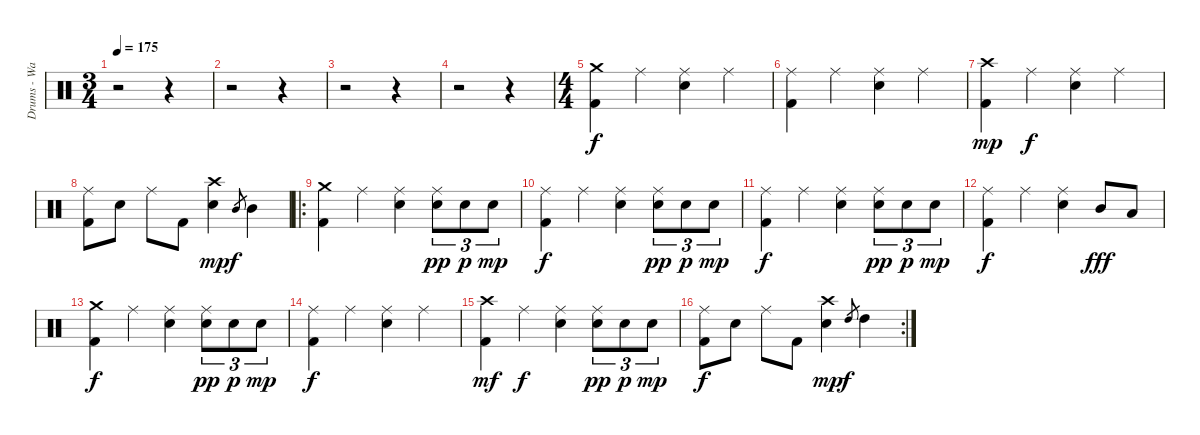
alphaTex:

\track ("Drums - Ward" "Drums - Wa") {instrument percussion}
\staff {score}
\articulation defaults
\ts (3 4)
\tempo 175
\clef neutral
\ks c
r.2{dy f} r.4 |
r.2 r.4 |
r.2 r.4 |
r.2 r.4 |
\ts (4 4)
("Crash medium (hit)" "Kick (hit) 2").4 "Ride (middle)".4 ("Ride (middle)" "Electric Snare (hit)").4 "Ride (middle)".4 |
("Ride (middle)" "Kick (hit) 2").4 "Ride (middle)".4 ("Ride (middle)" "Electric Snare (hit)").4 "Ride (middle)".4 |
("Crash high (hit)" "Kick (hit) 2").4{dy mp} "Ride (middle)".4{dy f} ("Ride (middle)" "Electric Snare (hit)").4 "Ride (middle)".4 |
("Ride (middle)" "Kick (hit) 2").8 "Electric Snare (hit)".8 "Ride (middle)".8 "Kick (hit) 2".8 ("Crash high (hit)" "Electric Snare (hit)").4{dy mp} "Mid Tom (hit)".8{gr dy f} "Mid Tom (hit)".4 |
\ro
("Crash medium (hit)" "Kick (hit) 2").4 "Ride (middle)".4 ("Ride (middle)" "Electric Snare (hit)").4 ("Ride (middle)" "Electric Snare (hit)").8{tu (3 2) dy pp} "Electric Snare (hit)".8{tu (3 2) dy p} "Electric Snare (hit)".8{tu (3 2) dy mp} |
("Ride (middle)" "Kick (hit) 2").4{dy f} "Ride (middle)".4 ("Ride (middle)" "Electric Snare (hit)").4 ("Ride (middle)" "Electric Snare (hit)").8{tu (3 2) dy pp} "Electric Snare (hit)".8{tu (3 2) dy p} "Electric Snare (hit)".8{tu (3 2) dy mp} |
("Ride (middle)" "Kick (hit) 2").4{dy f} "Ride (middle)".4 ("Ride (middle)" "Electric Snare (hit)").4 ("Ride (middle)" "Electric Snare (hit)").8{tu (3 2) dy pp} "Electric Snare (hit)".8{tu (3 2) dy p} "Electric Snare (hit)".8{tu (3 2) dy mp} |
("Ride (middle)" "Kick (hit) 2").4{dy f} "Ride (middle)".4 ("Ride (middle)" "Electric Snare (hit)").4 "Mid Tom (hit)".8{dy fff} "Low Tom (hit)".8 |
("Crash medium (hit)" "Kick (hit) 2").4{dy f} "Ride (middle)".4 ("Ride (middle)" "Electric Snare (hit)").4 ("Ride (middle)" "Electric Snare (hit)").8{tu (3 2) dy pp} "Electric Snare (hit)".8{tu (3 2) dy p} "Electric Snare (hit)".8{tu (3 2) dy mp} |
("Ride (middle)" "Kick (hit) 2").4{dy f} "Ride (middle)".4 ("Ride (middle)" "Electric Snare (hit)").4 "Ride (middle)".4 |
("Crash high (hit)" "Kick (hit) 2").4{dy mf} "Ride (middle)".4{dy f} ("Ride (middle)" "Electric Snare (hit)").4 ("Ride (middle)" "Electric Snare (hit)").8{tu (3 2) dy pp} "Electric Snare (hit)".8{tu (3 2) dy p} "Electric Snare (hit)".8{tu (3 2) dy mp} |
\rc 2
("Ride (middle)" "Kick (hit) 2").8{dy f} "Electric Snare (hit)".8 "Ride (middle)".8 "Kick (hit) 2".8 ("Crash high (hit)" "Electric Snare (hit)").4{dy mp} "High Tom (hit)".8{gr dy f} "High Tom (hit)".4
